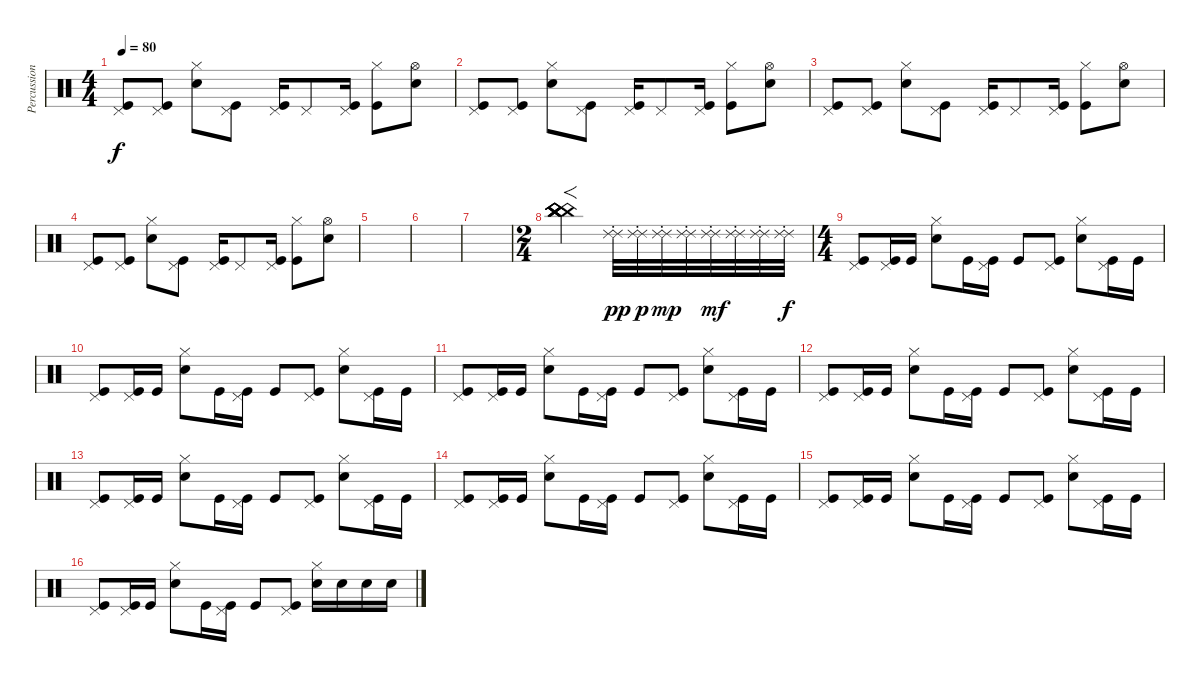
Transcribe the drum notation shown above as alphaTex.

\track ("Percussions" "Percussion") {instrument percussion}
\staff {score}
\articulation defaults
\ts (4 4)
\tempo 80
\clef neutral
\ks c
("Pedal Hi-Hat (hit)" "Kick (hit)").8{dy f} ("Pedal Hi-Hat (hit)" "Kick (hit)").8 ("Hi-Hat (closed)" "Electric Snare (hit)").8 ("Pedal Hi-Hat (hit)" "Kick (hit)").8 ("Pedal Hi-Hat (hit)" "Kick (hit)").16 "Pedal Hi-Hat (hit)".8 ("Pedal Hi-Hat (hit)" "Kick (hit)").16 ("Hi-Hat (closed)" "Kick (hit)").8 ("Hi-Hat (open)" "Electric Snare (hit)").8 |
("Pedal Hi-Hat (hit)" "Kick (hit)").8 ("Pedal Hi-Hat (hit)" "Kick (hit)").8 ("Hi-Hat (closed)" "Electric Snare (hit)").8 ("Pedal Hi-Hat (hit)" "Kick (hit)").8 ("Pedal Hi-Hat (hit)" "Kick (hit)").16 "Pedal Hi-Hat (hit)".8 ("Pedal Hi-Hat (hit)" "Kick (hit)").16 ("Hi-Hat (closed)" "Kick (hit)").8 ("Hi-Hat (open)" "Electric Snare (hit)").8 |
("Pedal Hi-Hat (hit)" "Kick (hit)").8 ("Pedal Hi-Hat (hit)" "Kick (hit)").8 ("Hi-Hat (closed)" "Electric Snare (hit)").8 ("Pedal Hi-Hat (hit)" "Kick (hit)").8 ("Pedal Hi-Hat (hit)" "Kick (hit)").16 "Pedal Hi-Hat (hit)".8 ("Pedal Hi-Hat (hit)" "Kick (hit)").16 ("Hi-Hat (closed)" "Kick (hit)").8 ("Hi-Hat (open)" "Electric Snare (hit)").8 |
("Pedal Hi-Hat (hit)" "Kick (hit)").8 ("Pedal Hi-Hat (hit)" "Kick (hit)").8 ("Hi-Hat (closed)" "Electric Snare (hit)").8 ("Pedal Hi-Hat (hit)" "Kick (hit)").8 ("Pedal Hi-Hat (hit)" "Kick (hit)").16 "Pedal Hi-Hat (hit)".8 ("Pedal Hi-Hat (hit)" "Kick (hit)").16 ("Hi-Hat (closed)" "Kick (hit)").8 ("Hi-Hat (open)" "Electric Snare (hit)").8 |
|
|
|
\ts (2 4)
("China (hit)" "China (hit)" "China (hit)" "China (hit)" "China (hit)" "China (hit)").4{f volume 16} ("Ride (choke) 2" "Ride (choke) 2").32{dy pp} ("Ride (choke) 2" "Ride (choke) 2").32{dy p} ("Ride (choke) 2" "Ride (choke) 2").32{dy mp} ("Ride (choke) 2" "Ride (choke) 2").32 ("Ride (choke) 2" "Ride (choke) 2").32{dy mf} ("Ride (choke) 2" "Ride (choke) 2").32 ("Ride (choke) 2" "Ride (choke) 2").32 ("Ride (choke) 2" "Ride (choke) 2").32{dy f} |
\ts (4 4)
("Pedal Hi-Hat (hit)" "Kick (hit)").8{volume 16} ("Pedal Hi-Hat (hit)" "Kick (hit)").16 "Kick (hit)".16 ("Hi-Hat (closed)" "Electric Snare (hit)").8 "Kick (hit)".16 ("Pedal Hi-Hat (hit)" "Kick (hit)").16 "Kick (hit)".8 ("Pedal Hi-Hat (hit)" "Kick (hit)").8 ("Hi-Hat (closed)" "Electric Snare (hit)").8 ("Pedal Hi-Hat (hit)" "Kick (hit)").16 "Kick (hit)".16 |
("Pedal Hi-Hat (hit)" "Kick (hit)").8{volume 16} ("Pedal Hi-Hat (hit)" "Kick (hit)").16 "Kick (hit)".16 ("Hi-Hat (closed)" "Electric Snare (hit)").8 "Kick (hit)".16 ("Pedal Hi-Hat (hit)" "Kick (hit)").16 "Kick (hit)".8 ("Pedal Hi-Hat (hit)" "Kick (hit)").8 ("Hi-Hat (closed)" "Electric Snare (hit)").8 ("Pedal Hi-Hat (hit)" "Kick (hit)").16 "Kick (hit)".16 |
("Pedal Hi-Hat (hit)" "Kick (hit)").8{volume 16} ("Pedal Hi-Hat (hit)" "Kick (hit)").16 "Kick (hit)".16 ("Hi-Hat (closed)" "Electric Snare (hit)").8 "Kick (hit)".16 ("Pedal Hi-Hat (hit)" "Kick (hit)").16 "Kick (hit)".8 ("Pedal Hi-Hat (hit)" "Kick (hit)").8 ("Hi-Hat (closed)" "Electric Snare (hit)").8 ("Pedal Hi-Hat (hit)" "Kick (hit)").16 "Kick (hit)".16 |
("Pedal Hi-Hat (hit)" "Kick (hit)").8{volume 16} ("Pedal Hi-Hat (hit)" "Kick (hit)").16 "Kick (hit)".16 ("Hi-Hat (closed)" "Electric Snare (hit)").8 "Kick (hit)".16 ("Pedal Hi-Hat (hit)" "Kick (hit)").16 "Kick (hit)".8 ("Pedal Hi-Hat (hit)" "Kick (hit)").8 ("Hi-Hat (closed)" "Electric Snare (hit)").8 ("Pedal Hi-Hat (hit)" "Kick (hit)").16 "Kick (hit)".16 |
("Pedal Hi-Hat (hit)" "Kick (hit)").8{volume 16} ("Pedal Hi-Hat (hit)" "Kick (hit)").16 "Kick (hit)".16 ("Hi-Hat (closed)" "Electric Snare (hit)").8 "Kick (hit)".16 ("Pedal Hi-Hat (hit)" "Kick (hit)").16 "Kick (hit)".8 ("Pedal Hi-Hat (hit)" "Kick (hit)").8 ("Hi-Hat (closed)" "Electric Snare (hit)").8 ("Pedal Hi-Hat (hit)" "Kick (hit)").16 "Kick (hit)".16 |
("Pedal Hi-Hat (hit)" "Kick (hit)").8{volume 16} ("Pedal Hi-Hat (hit)" "Kick (hit)").16 "Kick (hit)".16 ("Hi-Hat (closed)" "Electric Snare (hit)").8 "Kick (hit)".16 ("Pedal Hi-Hat (hit)" "Kick (hit)").16 "Kick (hit)".8 ("Pedal Hi-Hat (hit)" "Kick (hit)").8 ("Hi-Hat (closed)" "Electric Snare (hit)").8 ("Pedal Hi-Hat (hit)" "Kick (hit)").16 "Kick (hit)".16 |
("Pedal Hi-Hat (hit)" "Kick (hit)").8{volume 16} ("Pedal Hi-Hat (hit)" "Kick (hit)").16 "Kick (hit)".16 ("Hi-Hat (closed)" "Electric Snare (hit)").8 "Kick (hit)".16 ("Pedal Hi-Hat (hit)" "Kick (hit)").16 "Kick (hit)".8 ("Pedal Hi-Hat (hit)" "Kick (hit)").8 ("Hi-Hat (closed)" "Electric Snare (hit)").8 ("Pedal Hi-Hat (hit)" "Kick (hit)").16 "Kick (hit)".16 |
("Pedal Hi-Hat (hit)" "Kick (hit)").8{volume 16} ("Pedal Hi-Hat (hit)" "Kick (hit)").16 "Kick (hit)".16 ("Hi-Hat (closed)" "Electric Snare (hit)").8 "Kick (hit)".16 ("Pedal Hi-Hat (hit)" "Kick (hit)").16 "Kick (hit)".8 ("Pedal Hi-Hat (hit)" "Kick (hit)").8 ("Hi-Hat (closed)" "Electric Snare (hit)").16 "Electric Snare (hit)".16 "Electric Snare (hit)".16 "Electric Snare (hit)".16
